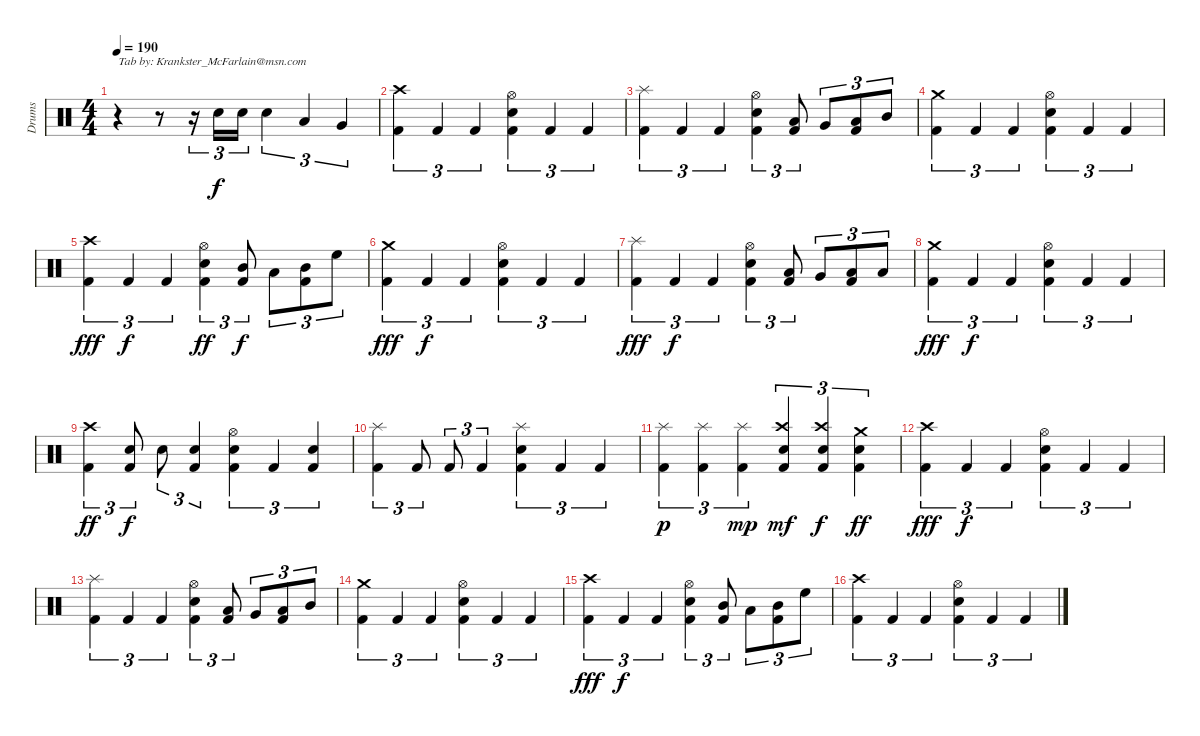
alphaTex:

\track ("Drums" "Drums") {instrument percussion}
\staff {score}
\articulation defaults
\ts (4 4)
\tempo 190
\clef neutral
\ks c
r.4{txt "Tab by: Krankster_McFarlain@msn.com" dy f} r.8 r.16{tu (3 2)} "Snare (hit) 2".16{tu (3 2)} "Snare (hit) 2".16{tu (3 2)} "Snare (hit) 2".4{tu (3 2)} "Low Tom (hit)".4{tu (3 2)} "Very Low Tom (hit)".4{tu (3 2)} |
("Crash high (hit)" "Kick (hit) 2").4{tu (3 2)} "Kick (hit) 2".4{tu (3 2)} "Kick (hit) 2".4{tu (3 2)} ("Hi-Hat (open)" "Snare (hit) 2" "Kick (hit) 2").4{tu (3 2)} "Kick (hit) 2".4{tu (3 2)} "Kick (hit) 2".4{tu (3 2)} |
("Splash (hit)" "Kick (hit) 2").4{tu (3 2)} "Kick (hit) 2".4{tu (3 2)} "Kick (hit) 2".4{tu (3 2)} ("Hi-Hat (open)" "Snare (hit) 2" "Kick (hit) 2").4{tu (3 2)} ("Low Tom (hit)" "Kick (hit) 2").8{tu (3 2)} "Very Low Tom (hit)".8{tu (3 2)} ("Low Tom (hit)" "Kick (hit) 2").8{tu (3 2)} "Mid Tom (hit)".8{tu (3 2)} |
("Crash medium (hit)" "Kick (hit) 2").4{tu (3 2)} "Kick (hit) 2".4{tu (3 2)} "Kick (hit) 2".4{tu (3 2)} ("Hi-Hat (open)" "Snare (hit) 2" "Kick (hit) 2").4{tu (3 2)} "Kick (hit) 2".4{tu (3 2)} "Kick (hit) 2".4{tu (3 2)} |
("Crash high (hit)" "Kick (hit) 2").4{tu (3 2) dy fff} "Kick (hit) 2".4{tu (3 2) dy f} "Kick (hit) 2".4{tu (3 2)} ("Hi-Hat (open)" "Snare (hit) 2" "Kick (hit) 2").4{tu (3 2) dy ff} ("Mid Tom (hit)" "Kick (hit) 2").8{tu (3 2) dy f} "Low Tom (hit)".8{tu (3 2)} ("Mid Tom (hit)" "Kick (hit) 2").8{tu (3 2)} "High Floor Tom (hit)".8{tu (3 2)} |
("Crash medium (hit)" "Kick (hit) 2").4{tu (3 2) dy fff} "Kick (hit) 2".4{tu (3 2) dy f} "Kick (hit) 2".4{tu (3 2)} ("Hi-Hat (open)" "Snare (hit) 2" "Kick (hit) 2").4{tu (3 2)} "Kick (hit) 2".4{tu (3 2)} "Kick (hit) 2".4{tu (3 2)} |
("Splash (hit)" "Kick (hit) 2").4{tu (3 2) dy fff} "Kick (hit) 2".4{tu (3 2) dy f} "Kick (hit) 2".4{tu (3 2)} ("Hi-Hat (open)" "Snare (hit) 2" "Kick (hit) 2").4{tu (3 2)} ("Low Tom (hit)" "Kick (hit) 2").8{tu (3 2)} "Very Low Tom (hit)".8{tu (3 2)} ("Low Tom (hit)" "Kick (hit) 2").8{tu (3 2)} "Low Floor Tom (hit)".8{tu (3 2)} |
("Crash medium (hit)" "Kick (hit) 2").4{tu (3 2) dy fff} "Kick (hit) 2".4{tu (3 2) dy f} "Kick (hit) 2".4{tu (3 2)} ("Hi-Hat (open)" "Snare (hit) 2" "Kick (hit) 2").4{tu (3 2)} "Kick (hit) 2".4{tu (3 2)} "Kick (hit) 2".4{tu (3 2)} |
("Crash high (hit)" "Kick (hit) 2").4{tu (3 2) dy ff} ("Snare (hit) 2" "Kick (hit) 2").8{tu (3 2) dy f} "Snare (hit) 2".8{tu (3 2)} ("Snare (hit) 2" "Kick (hit) 2").4{tu (3 2)} ("Hi-Hat (open)" "Snare (hit) 2" "Kick (hit) 2").4{tu (3 2)} "Kick (hit) 2".4{tu (3 2)} ("Snare (hit) 2" "Kick (hit) 2").4{tu (3 2)} |
("Splash (hit)" "Kick (hit) 2").4{tu (3 2)} "Kick (hit) 2".8{tu (3 2)} "Kick (hit) 2".8{tu (3 2)} "Kick (hit) 2".4{tu (3 2)} ("Splash (hit)" "Snare (hit) 2" "Kick (hit) 2").4{tu (3 2)} "Kick (hit) 2".4{tu (3 2)} "Kick (hit) 2".4{tu (3 2)} |
("Splash (hit)" "Kick (hit) 2").4{tu (3 2) dy p} ("Splash (hit)" "Kick (hit) 2").4{tu (3 2)} ("Splash (hit)" "Kick (hit) 2").4{tu (3 2) dy mp} ("Crash high (hit)" "Snare (hit) 2" "Kick (hit) 2").4{tu (3 2) dy mf} ("Crash high (hit)" "Snare (hit) 2" "Kick (hit) 2").4{tu (3 2) dy f} ("Crash medium (hit)" "Snare (hit) 2" "Kick (hit) 2").4{tu (3 2) dy ff} |
("Crash high (hit)" "Kick (hit) 2").4{tu (3 2) dy fff} "Kick (hit) 2".4{tu (3 2) dy f} "Kick (hit) 2".4{tu (3 2)} ("Hi-Hat (open)" "Snare (hit) 2" "Kick (hit) 2").4{tu (3 2)} "Kick (hit) 2".4{tu (3 2)} "Kick (hit) 2".4{tu (3 2)} |
("Splash (hit)" "Kick (hit) 2").4{tu (3 2)} "Kick (hit) 2".4{tu (3 2)} "Kick (hit) 2".4{tu (3 2)} ("Hi-Hat (open)" "Snare (hit) 2" "Kick (hit) 2").4{tu (3 2)} ("Low Tom (hit)" "Kick (hit) 2").8{tu (3 2)} "Very Low Tom (hit)".8{tu (3 2)} ("Low Tom (hit)" "Kick (hit) 2").8{tu (3 2)} "Mid Tom (hit)".8{tu (3 2)} |
("Crash medium (hit)" "Kick (hit) 2").4{tu (3 2)} "Kick (hit) 2".4{tu (3 2)} "Kick (hit) 2".4{tu (3 2)} ("Hi-Hat (open)" "Snare (hit) 2" "Kick (hit) 2").4{tu (3 2)} "Kick (hit) 2".4{tu (3 2)} "Kick (hit) 2".4{tu (3 2)} |
("Crash high (hit)" "Kick (hit) 2").4{tu (3 2) dy fff} "Kick (hit) 2".4{tu (3 2) dy f} "Kick (hit) 2".4{tu (3 2)} ("Hi-Hat (open)" "Snare (hit) 2" "Kick (hit) 2").4{tu (3 2)} ("Mid Tom (hit)" "Kick (hit) 2").8{tu (3 2)} "Low Tom (hit)".8{tu (3 2)} ("Mid Tom (hit)" "Kick (hit) 2").8{tu (3 2)} "High Floor Tom (hit)".8{tu (3 2)} |
("Crash high (hit)" "Kick (hit) 2").4{tu (3 2)} "Kick (hit) 2".4{tu (3 2)} "Kick (hit) 2".4{tu (3 2)} ("Hi-Hat (open)" "Snare (hit) 2" "Kick (hit) 2").4{tu (3 2)} "Kick (hit) 2".4{tu (3 2)} "Kick (hit) 2".4{tu (3 2)}
